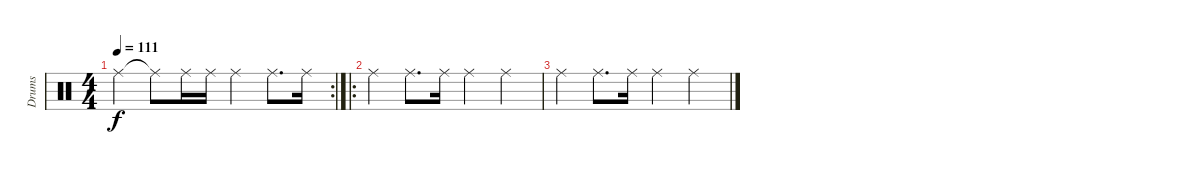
\track ("Drums" "Drums") {instrument percussion}
\staff {score}
\articulation defaults
\rc 2
\ts (4 4)
\tempo 111
\clef neutral
\ks c "Ride (middle)".4{dy f} "Ride (middle)"{t}.8 "Ride (middle)".16 "Ride (middle)".16 "Ride (middle)".4 "Ride (middle)".8{d} "Ride (middle)".16
|
\ro "Ride (middle)".4 "Ride (middle)".8{d} "Ride (middle)".16 "Ride (middle)".4 "Ride (middle)".4
|
"Ride (middle)".4 "Ride (middle)".8{d} "Ride (middle)".16 "Ride (middle)".4 "Ride (middle)".4
